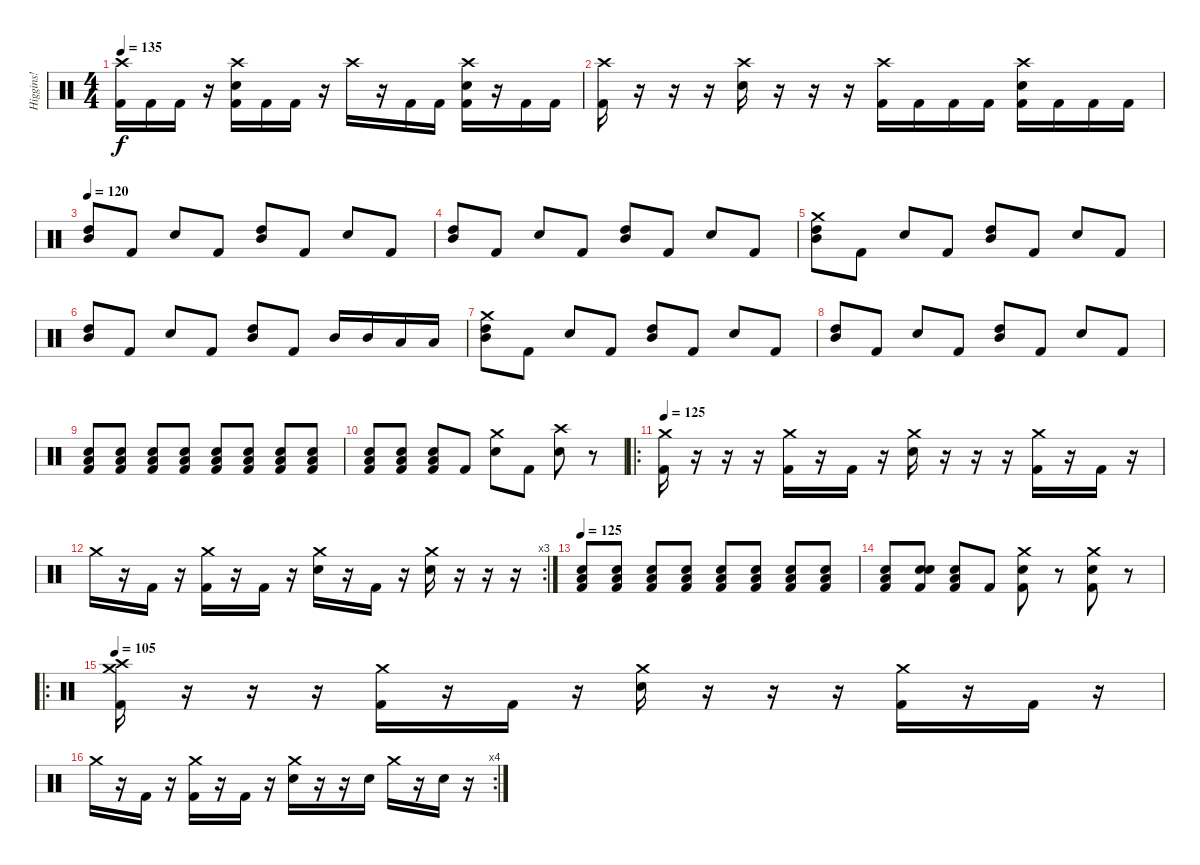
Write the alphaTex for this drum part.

\track ("Higgins!" "Higgins!") {instrument percussion}
\staff {score}
\articulation defaults
\ts (4 4)
\tempo 135
\clef neutral
\ks c
("Crash high (hit)" "Kick (hit) 2").16{dy f} "Kick (hit) 2".16 "Kick (hit) 2".16 r.16 ("Crash high (hit)" "Snare (hit) 2" "Kick (hit) 2").16 "Kick (hit) 2".16 "Kick (hit) 2".16 r.16 "Crash high (hit)".16 r.16 "Kick (hit) 2".16 "Kick (hit) 2".16 ("Crash high (hit)" "Snare (hit) 2" "Kick (hit) 2").16 r.16 "Kick (hit) 2".16 "Kick (hit) 2".16 |
("Crash high (hit)" "Kick (hit) 2").16 r.16 r.16 r.16 ("Crash high (hit)" "Snare (hit) 2").16 r.16 r.16 r.16 ("Crash high (hit)" "Kick (hit) 2").16 "Kick (hit) 2".16 "Kick (hit) 2".16 "Kick (hit) 2".16 ("Crash high (hit)" "Snare (hit) 2" "Kick (hit) 2").16 "Kick (hit) 2".16 "Kick (hit) 2".16 "Kick (hit) 2".16 |
\tempo 120
("High Tom (hit)" "Mid Tom (hit)").8 "Kick (hit) 2".8 "Snare (hit) 2".8 "Kick (hit) 2".8 ("High Tom (hit)" "Mid Tom (hit)").8 "Kick (hit) 2".8 "Snare (hit) 2".8 "Kick (hit) 2".8 |
("High Tom (hit)" "Mid Tom (hit)").8 "Kick (hit) 2".8 "Snare (hit) 2".8 "Kick (hit) 2".8 ("High Tom (hit)" "Mid Tom (hit)").8 "Kick (hit) 2".8 "Snare (hit) 2".8 "Kick (hit) 2".8 |
("Crash medium (hit)" "High Tom (hit)" "Mid Tom (hit)").8 "Kick (hit) 2".8 "Snare (hit) 2".8 "Kick (hit) 2".8 ("High Tom (hit)" "Mid Tom (hit)").8 "Kick (hit) 2".8 "Snare (hit) 2".8 "Kick (hit) 2".8 |
("High Tom (hit)" "Mid Tom (hit)").8 "Kick (hit) 2".8 "Snare (hit) 2".8 "Kick (hit) 2".8 ("High Tom (hit)" "Mid Tom (hit)").8 "Kick (hit) 2".8 "Mid Tom (hit)".16 "Mid Tom (hit)".16 "Low Tom (hit)".16 "Low Tom (hit)".16 |
("Crash medium (hit)" "High Tom (hit)" "Mid Tom (hit)").8 "Kick (hit) 2".8 "Snare (hit) 2".8 "Kick (hit) 2".8 ("High Tom (hit)" "Mid Tom (hit)").8 "Kick (hit) 2".8 "Snare (hit) 2".8 "Kick (hit) 2".8 |
("High Tom (hit)" "Mid Tom (hit)").8 "Kick (hit) 2".8 "Snare (hit) 2".8 "Kick (hit) 2".8 ("High Tom (hit)" "Mid Tom (hit)").8 "Kick (hit) 2".8 "Snare (hit) 2".8 "Kick (hit) 2".8 |
("Low Tom (hit)" "Snare (hit) 2" "Kick (hit) 2").8 ("Low Tom (hit)" "Snare (hit) 2" "Kick (hit) 2").8 ("Low Tom (hit)" "Snare (hit) 2" "Kick (hit) 2").8 ("Low Tom (hit)" "Snare (hit) 2" "Kick (hit) 2").8 ("Low Tom (hit)" "Snare (hit) 2" "Kick (hit) 2").8 ("Low Tom (hit)" "Snare (hit) 2" "Kick (hit) 2").8 ("Low Tom (hit)" "Snare (hit) 2" "Kick (hit) 2").8 ("Low Tom (hit)" "Snare (hit) 2" "Kick (hit) 2").8 |
("Low Tom (hit)" "Snare (hit) 2" "Kick (hit) 2").8 ("Low Tom (hit)" "Snare (hit) 2" "Kick (hit) 2").8 ("Low Tom (hit)" "Snare (hit) 2" "Kick (hit) 2").8 "Kick (hit) 2".8 ("Crash medium (hit)" "Snare (hit) 2").8 "Kick (hit) 2".8 ("Crash high (hit)" "Snare (hit) 2").8 r.8 |
\ro
\tempo 120
\tempo 125
("Crash medium (hit)" "Kick (hit) 2").16 r.16 r.16 r.16 ("Crash medium (hit)" "Kick (hit) 2").16 r.16 "Kick (hit) 2".16 r.16 ("Crash medium (hit)" "Snare (hit) 2").16 r.16 r.16 r.16 ("Crash medium (hit)" "Kick (hit) 2").16 r.16 "Kick (hit) 2".16 r.16 |
\rc 3 "Crash medium (hit)".16
r.16 "Kick (hit) 2".16 r.16 ("Crash medium (hit)" "Kick (hit) 2").16 r.16 "Kick (hit) 2".16 r.16 ("Crash medium (hit)" "Snare (hit) 2").16 r.16 "Kick (hit) 2".16 r.16 ("Crash medium (hit)" "Snare (hit) 2").16 r.16 r.16 r.16 |
\tempo 115
\tempo 125
("Low Tom (hit)" "Snare (hit) 2" "Kick (hit) 2").8 ("Low Tom (hit)" "Snare (hit) 2" "Kick (hit) 2").8 ("Low Tom (hit)" "Snare (hit) 2" "Kick (hit) 2").8 ("Low Tom (hit)" "Snare (hit) 2" "Kick (hit) 2").8 ("Low Tom (hit)" "Snare (hit) 2" "Kick (hit) 2").8 ("Low Tom (hit)" "Snare (hit) 2" "Kick (hit) 2").8 ("Low Tom (hit)" "Snare (hit) 2" "Kick (hit) 2").8 ("Low Tom (hit)" "Snare (hit) 2" "Kick (hit) 2").8 |
("Low Tom (hit)" "Snare (hit) 2" "Kick (hit) 2").8 ("Snare (hit)" "Snare (hit) 2" "Kick (hit) 2").8 ("Low Tom (hit)" "Snare (hit) 2" "Kick (hit) 2").8 "Kick (hit) 2".8 ("Crash medium (hit)" "Snare (hit) 2" "Kick (hit) 2").8 r.8 ("Crash medium (hit)" "Snare (hit) 2" "Kick (hit) 2").8 r.8 |
\ro
\tempo 105
("Crash high (hit)" "Crash medium (hit)" "Kick (hit) 2").16 r.16 r.16 r.16 ("Crash medium (hit)" "Kick (hit) 2").16 r.16 "Kick (hit) 2".16 r.16 ("Crash medium (hit)" "Snare (hit) 2").16 r.16 r.16 r.16 ("Crash medium (hit)" "Kick (hit) 2").16 r.16 "Kick (hit) 2".16 r.16 |
\rc 4 "Crash medium (hit)".16
r.16 "Kick (hit) 2".16 r.16 ("Crash medium (hit)" "Kick (hit) 2").16 r.16 "Kick (hit) 2".16 r.16 ("Crash medium (hit)" "Snare (hit) 2").16 r.16 r.16 "Snare (hit) 2".16 "Crash medium (hit)".16 r.16 "Snare (hit) 2".16 r.16
